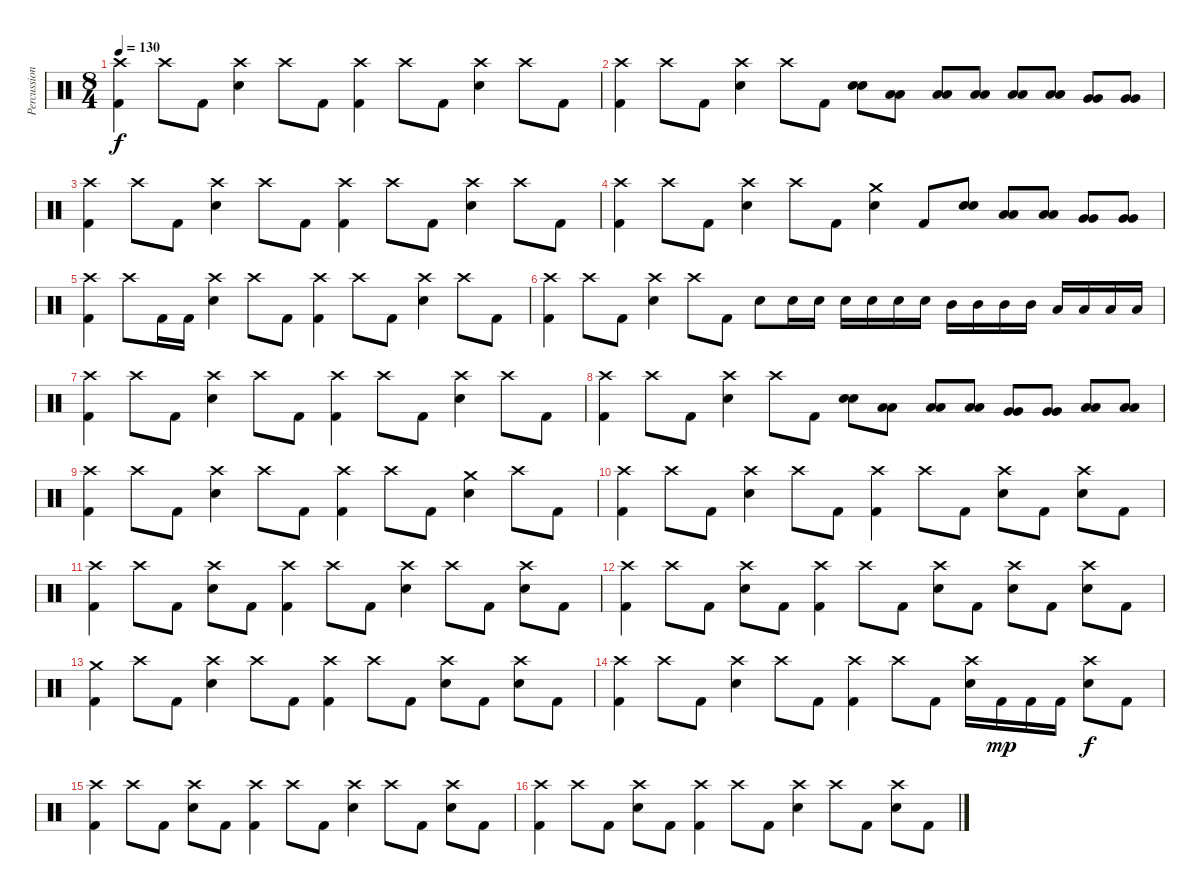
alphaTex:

\track ("Percussion" "Percussion") {instrument percussion}
\staff {score}
\articulation defaults
\ts (8 4)
\tempo 130
\clef neutral
\ks c
("Crash high (hit)" "Kick (hit) 2").4{dy f} "Crash high (hit)".8 "Kick (hit) 2".8 ("Crash high (hit)" "Electric Snare (hit)").4 "Crash high (hit)".8 "Kick (hit) 2".8 ("Crash high (hit)" "Kick (hit) 2").4 "Crash high (hit)".8 "Kick (hit) 2".8 ("Crash high (hit)" "Electric Snare (hit)").4 "Crash high (hit)".8 "Kick (hit) 2".8 |
("Crash high (hit)" "Kick (hit) 2").4 "Crash high (hit)".8 "Kick (hit) 2".8 ("Crash high (hit)" "Electric Snare (hit)").4 "Crash high (hit)".8 "Kick (hit) 2".8 ("Electric Snare (hit)" "Electric Snare (hit)").8{bu 60} ("Low Tom (hit)" "Low Tom (hit)").8 ("Low Tom (hit)" "Low Tom (hit)").8 ("Low Tom (hit)" "Low Tom (hit)").8{bu 60} ("Low Tom (hit)" "Low Tom (hit)").8 ("Low Tom (hit)" "Low Tom (hit)").8 ("Very Low Tom (hit)" "Very Low Tom (hit)").8 ("Very Low Tom (hit)" "Very Low Tom (hit)").8 |
("Crash high (hit)" "Kick (hit) 2").4 "Crash high (hit)".8 "Kick (hit) 2".8 ("Crash high (hit)" "Electric Snare (hit)").4 "Crash high (hit)".8 "Kick (hit) 2".8 ("Crash high (hit)" "Kick (hit) 2").4 "Crash high (hit)".8 "Kick (hit) 2".8 ("Crash high (hit)" "Electric Snare (hit)").4 "Crash high (hit)".8 "Kick (hit) 2".8 |
("Crash high (hit)" "Kick (hit) 2").4 "Crash high (hit)".8 "Kick (hit) 2".8 ("Crash high (hit)" "Electric Snare (hit)").4 "Crash high (hit)".8 "Kick (hit) 2".8 ("Crash medium (hit)" "Electric Snare (hit)").4 "Kick (hit) 2".8 ("Electric Snare (hit)" "Electric Snare (hit)").8{bu 60} ("Low Tom (hit)" "Low Tom (hit)").8{bu 60} ("Low Tom (hit)" "Low Tom (hit)").8{bu 60} ("Very Low Tom (hit)" "Very Low Tom (hit)").8{bu 60} ("Very Low Tom (hit)" "Very Low Tom (hit)").8{bu 60} |
("Crash high (hit)" "Kick (hit) 2").4 "Crash high (hit)".8 "Kick (hit) 2".16 "Kick (hit) 2".16 ("Crash high (hit)" "Electric Snare (hit)").4 "Crash high (hit)".8 "Kick (hit) 2".8 ("Crash high (hit)" "Kick (hit) 2").4 "Crash high (hit)".8 "Kick (hit) 2".8 ("Crash high (hit)" "Electric Snare (hit)").4 "Crash high (hit)".8 "Kick (hit) 2".8 |
("Crash high (hit)" "Kick (hit) 2").4 "Crash high (hit)".8 "Kick (hit) 2".8 ("Crash high (hit)" "Electric Snare (hit)").4 "Crash high (hit)".8 "Kick (hit) 2".8 "Electric Snare (hit)".8 "Electric Snare (hit)".16 "Electric Snare (hit)".16 "Electric Snare (hit)".16 "Electric Snare (hit)".16 "Electric Snare (hit)".16 "Electric Snare (hit)".16 "Mid Tom (hit)".16 "Mid Tom (hit)".16 "Mid Tom (hit)".16 "Mid Tom (hit)".16 "Low Tom (hit)".16 "Low Tom (hit)".16 "Low Tom (hit)".16 "Low Tom (hit)".16 |
("Crash high (hit)" "Kick (hit) 2").4 "Crash high (hit)".8 "Kick (hit) 2".8 ("Crash high (hit)" "Electric Snare (hit)").4 "Crash high (hit)".8 "Kick (hit) 2".8 ("Crash high (hit)" "Kick (hit) 2").4 "Crash high (hit)".8 "Kick (hit) 2".8 ("Crash high (hit)" "Electric Snare (hit)").4 "Crash high (hit)".8 "Kick (hit) 2".8 |
("Crash high (hit)" "Kick (hit) 2").4 "Crash high (hit)".8 "Kick (hit) 2".8 ("Crash high (hit)" "Electric Snare (hit)").4 "Crash high (hit)".8 "Kick (hit) 2".8 ("Electric Snare (hit)" "Electric Snare (hit)").8{bu 60} ("Low Tom (hit)" "Low Tom (hit)").8 ("Low Tom (hit)" "Low Tom (hit)").8 ("Low Tom (hit)" "Low Tom (hit)").8{bu 60} ("Very Low Tom (hit)" "Very Low Tom (hit)").8 ("Very Low Tom (hit)" "Very Low Tom (hit)").8 ("Low Floor Tom (hit)" "Low Floor Tom (hit)").8 ("Low Floor Tom (hit)" "Low Floor Tom (hit)").8 |
("Crash high (hit)" "Kick (hit) 2").4 "Crash high (hit)".8 "Kick (hit) 2".8 ("Crash high (hit)" "Electric Snare (hit)").4 "Crash high (hit)".8 "Kick (hit) 2".8 ("Crash high (hit)" "Kick (hit) 2").4 "Crash high (hit)".8 "Kick (hit) 2".8 ("Crash medium (hit)" "Electric Snare (hit)").4 "Crash high (hit)".8 "Kick (hit) 2".8 |
("Crash high (hit)" "Kick (hit) 2").4 "Crash high (hit)".8 "Kick (hit) 2".8 ("Crash high (hit)" "Electric Snare (hit)").4 "Crash high (hit)".8 "Kick (hit) 2".8 ("Crash high (hit)" "Kick (hit) 2").4 "Crash high (hit)".8 "Kick (hit) 2".8 ("Crash high (hit)" "Electric Snare (hit)").8 "Kick (hit) 2".8 ("Crash high (hit)" "Electric Snare (hit)").8 "Kick (hit) 2".8 |
("Crash high (hit)" "Kick (hit) 2").4 "Crash high (hit)".8 "Kick (hit) 2".8 ("Crash high (hit)" "Electric Snare (hit)").8 "Kick (hit) 2".8 ("Crash high (hit)" "Kick (hit) 2").4 "Crash high (hit)".8 "Kick (hit) 2".8 ("Crash high (hit)" "Electric Snare (hit)").4 "Crash high (hit)".8 "Kick (hit) 2".8 ("Crash high (hit)" "Electric Snare (hit)").8 "Kick (hit) 2".8 |
("Crash high (hit)" "Kick (hit) 2").4 "Crash high (hit)".8 "Kick (hit) 2".8 ("Crash high (hit)" "Electric Snare (hit)").8 "Kick (hit) 2".8 ("Crash high (hit)" "Kick (hit) 2").4 "Crash high (hit)".8 "Kick (hit) 2".8 ("Crash high (hit)" "Electric Snare (hit)").8 "Kick (hit) 2".8 ("Crash high (hit)" "Electric Snare (hit)").8 "Kick (hit) 2".8 ("Crash high (hit)" "Electric Snare (hit)").8 "Kick (hit) 2".8 |
("Crash medium (hit)" "Kick (hit) 2").4 "Crash high (hit)".8 "Kick (hit) 2".8 ("Crash high (hit)" "Electric Snare (hit)").4 "Crash high (hit)".8 "Kick (hit) 2".8 ("Crash high (hit)" "Kick (hit) 2").4 "Crash high (hit)".8 "Kick (hit) 2".8 ("Crash high (hit)" "Electric Snare (hit)").8 "Kick (hit) 2".8 ("Crash high (hit)" "Electric Snare (hit)").8 "Kick (hit) 2".8 |
("Crash high (hit)" "Kick (hit) 2").4 "Crash high (hit)".8 "Kick (hit) 2".8 ("Crash high (hit)" "Electric Snare (hit)").4 "Crash high (hit)".8 "Kick (hit) 2".8 ("Crash high (hit)" "Kick (hit) 2").4 "Crash high (hit)".8 "Kick (hit) 2".8 ("Crash high (hit)" "Electric Snare (hit)").16 "Kick (hit) 2".16{dy mp} "Kick (hit) 2".16 "Kick (hit) 2".16 ("Crash high (hit)" "Electric Snare (hit)").8{dy f} "Kick (hit) 2".8 |
("Crash high (hit)" "Kick (hit) 2").4 "Crash high (hit)".8 "Kick (hit) 2".8 ("Crash high (hit)" "Electric Snare (hit)").8 "Kick (hit) 2".8 ("Crash high (hit)" "Kick (hit) 2").4 "Crash high (hit)".8 "Kick (hit) 2".8 ("Crash high (hit)" "Electric Snare (hit)").4 "Crash high (hit)".8 "Kick (hit) 2".8 ("Crash high (hit)" "Electric Snare (hit)").8 "Kick (hit) 2".8 |
("Crash high (hit)" "Kick (hit) 2").4 "Crash high (hit)".8 "Kick (hit) 2".8 ("Crash high (hit)" "Electric Snare (hit)").8 "Kick (hit) 2".8 ("Crash high (hit)" "Kick (hit) 2").4 "Crash high (hit)".8 "Kick (hit) 2".8 ("Crash high (hit)" "Electric Snare (hit)").4 "Crash high (hit)".8 "Kick (hit) 2".8 ("Crash high (hit)" "Electric Snare (hit)").8 "Kick (hit) 2".8
